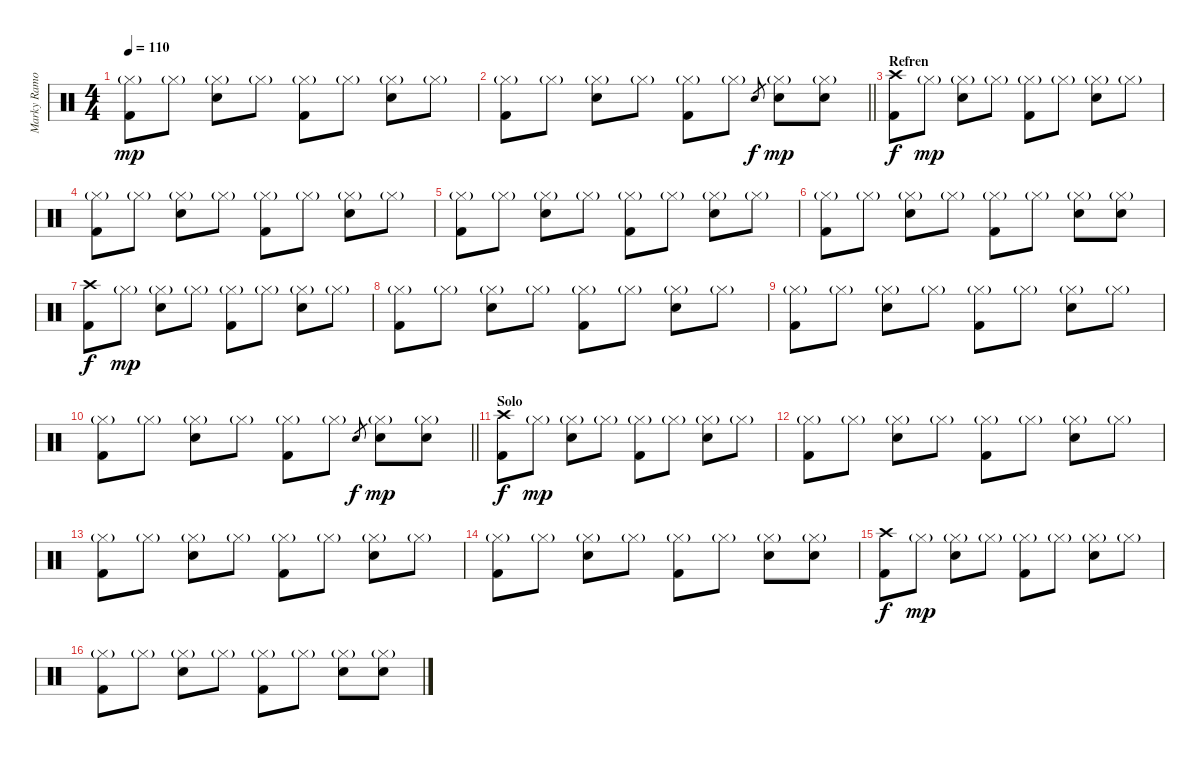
\track ("Marky Ramone-Drums" "Marky Ramo") {instrument percussion}
\staff
\articulation defaults
\ts (4 4)
\tempo 110
\clef neutral
\ks c
("Hi-Hat (closed)"{g} "Kick (hit) 2").8{dy mp} "Hi-Hat (closed)"{g}.8 ("Hi-Hat (closed)"{g} "Snare (hit) 2").8 "Hi-Hat (closed)"{g}.8 ("Hi-Hat (closed)"{g} "Kick (hit) 2").8 "Hi-Hat (closed)"{g}.8 ("Hi-Hat (closed)"{g} "Snare (hit) 2").8 "Hi-Hat (closed)"{g}.8 |
\barLineRight lightlight
("Hi-Hat (closed)"{g} "Kick (hit) 2").8 "Hi-Hat (closed)"{g}.8 ("Hi-Hat (closed)"{g} "Snare (hit) 2").8 "Hi-Hat (closed)"{g}.8 ("Hi-Hat (closed)"{g} "Kick (hit) 2").8 "Hi-Hat (closed)"{g}.8 "Snare (hit) 2".8{gr dy f} ("Hi-Hat (closed)"{g} "Snare (hit) 2").8{dy mp} ("Hi-Hat (closed)"{g} "Snare (hit) 2").8 |
\section ("" "Refren")
("Crash high (hit)" "Kick (hit) 2").8{dy f} "Hi-Hat (closed)"{g}.8{dy mp} ("Hi-Hat (closed)"{g} "Snare (hit) 2").8 "Hi-Hat (closed)"{g}.8 ("Hi-Hat (closed)"{g} "Kick (hit) 2").8 "Hi-Hat (closed)"{g}.8 ("Hi-Hat (closed)"{g} "Snare (hit) 2").8 "Hi-Hat (closed)"{g}.8 |
("Hi-Hat (closed)"{g} "Kick (hit) 2").8 "Hi-Hat (closed)"{g}.8 ("Hi-Hat (closed)"{g} "Snare (hit) 2").8 "Hi-Hat (closed)"{g}.8 ("Hi-Hat (closed)"{g} "Kick (hit) 2").8 "Hi-Hat (closed)"{g}.8 ("Hi-Hat (closed)"{g} "Snare (hit) 2").8 "Hi-Hat (closed)"{g}.8 |
("Hi-Hat (closed)"{g} "Kick (hit) 2").8 "Hi-Hat (closed)"{g}.8 ("Hi-Hat (closed)"{g} "Snare (hit) 2").8 "Hi-Hat (closed)"{g}.8 ("Hi-Hat (closed)"{g} "Kick (hit) 2").8 "Hi-Hat (closed)"{g}.8 ("Hi-Hat (closed)"{g} "Snare (hit) 2").8 "Hi-Hat (closed)"{g}.8 |
("Hi-Hat (closed)"{g} "Kick (hit) 2").8 "Hi-Hat (closed)"{g}.8 ("Hi-Hat (closed)"{g} "Snare (hit) 2").8 "Hi-Hat (closed)"{g}.8 ("Hi-Hat (closed)"{g} "Kick (hit) 2").8 "Hi-Hat (closed)"{g}.8 ("Hi-Hat (closed)"{g} "Snare (hit) 2").8 ("Hi-Hat (closed)"{g} "Snare (hit) 2").8 |
("Crash high (hit)" "Kick (hit) 2").8{dy f} "Hi-Hat (closed)"{g}.8{dy mp} ("Hi-Hat (closed)"{g} "Snare (hit) 2").8 "Hi-Hat (closed)"{g}.8 ("Hi-Hat (closed)"{g} "Kick (hit) 2").8 "Hi-Hat (closed)"{g}.8 ("Hi-Hat (closed)"{g} "Snare (hit) 2").8 "Hi-Hat (closed)"{g}.8 |
("Hi-Hat (closed)"{g} "Kick (hit) 2").8 "Hi-Hat (closed)"{g}.8 ("Hi-Hat (closed)"{g} "Snare (hit) 2").8 "Hi-Hat (closed)"{g}.8 ("Hi-Hat (closed)"{g} "Kick (hit) 2").8 "Hi-Hat (closed)"{g}.8 ("Hi-Hat (closed)"{g} "Snare (hit) 2").8 "Hi-Hat (closed)"{g}.8 |
("Hi-Hat (closed)"{g} "Kick (hit) 2").8 "Hi-Hat (closed)"{g}.8 ("Hi-Hat (closed)"{g} "Snare (hit) 2").8 "Hi-Hat (closed)"{g}.8 ("Hi-Hat (closed)"{g} "Kick (hit) 2").8 "Hi-Hat (closed)"{g}.8 ("Hi-Hat (closed)"{g} "Snare (hit) 2").8 "Hi-Hat (closed)"{g}.8 |
\barLineRight lightlight
("Hi-Hat (closed)"{g} "Kick (hit) 2").8 "Hi-Hat (closed)"{g}.8 ("Hi-Hat (closed)"{g} "Snare (hit) 2").8 "Hi-Hat (closed)"{g}.8 ("Hi-Hat (closed)"{g} "Kick (hit) 2").8 "Hi-Hat (closed)"{g}.8 "Snare (hit) 2".8{gr dy f} ("Hi-Hat (closed)"{g} "Snare (hit) 2").8{dy mp} ("Hi-Hat (closed)"{g} "Snare (hit) 2").8 |
\section ("" "Solo")
("Crash high (hit)" "Kick (hit) 2").8{dy f} "Hi-Hat (closed)"{g}.8{dy mp} ("Hi-Hat (closed)"{g} "Snare (hit) 2").8 "Hi-Hat (closed)"{g}.8 ("Hi-Hat (closed)"{g} "Kick (hit) 2").8 "Hi-Hat (closed)"{g}.8 ("Hi-Hat (closed)"{g} "Snare (hit) 2").8 "Hi-Hat (closed)"{g}.8 |
("Hi-Hat (closed)"{g} "Kick (hit) 2").8 "Hi-Hat (closed)"{g}.8 ("Hi-Hat (closed)"{g} "Snare (hit) 2").8 "Hi-Hat (closed)"{g}.8 ("Hi-Hat (closed)"{g} "Kick (hit) 2").8 "Hi-Hat (closed)"{g}.8 ("Hi-Hat (closed)"{g} "Snare (hit) 2").8 "Hi-Hat (closed)"{g}.8 |
("Hi-Hat (closed)"{g} "Kick (hit) 2").8 "Hi-Hat (closed)"{g}.8 ("Hi-Hat (closed)"{g} "Snare (hit) 2").8 "Hi-Hat (closed)"{g}.8 ("Hi-Hat (closed)"{g} "Kick (hit) 2").8 "Hi-Hat (closed)"{g}.8 ("Hi-Hat (closed)"{g} "Snare (hit) 2").8 "Hi-Hat (closed)"{g}.8 |
("Hi-Hat (closed)"{g} "Kick (hit) 2").8 "Hi-Hat (closed)"{g}.8 ("Hi-Hat (closed)"{g} "Snare (hit) 2").8 "Hi-Hat (closed)"{g}.8 ("Hi-Hat (closed)"{g} "Kick (hit) 2").8 "Hi-Hat (closed)"{g}.8 ("Hi-Hat (closed)"{g} "Snare (hit) 2").8 ("Hi-Hat (closed)"{g} "Snare (hit) 2").8 |
("Crash high (hit)" "Kick (hit) 2").8{dy f} "Hi-Hat (closed)"{g}.8{dy mp} ("Hi-Hat (closed)"{g} "Snare (hit) 2").8 "Hi-Hat (closed)"{g}.8 ("Hi-Hat (closed)"{g} "Kick (hit) 2").8 "Hi-Hat (closed)"{g}.8 ("Hi-Hat (closed)"{g} "Snare (hit) 2").8 "Hi-Hat (closed)"{g}.8 |
("Hi-Hat (closed)"{g} "Kick (hit) 2").8 "Hi-Hat (closed)"{g}.8 ("Hi-Hat (closed)"{g} "Snare (hit) 2").8 "Hi-Hat (closed)"{g}.8 ("Hi-Hat (closed)"{g} "Kick (hit) 2").8 "Hi-Hat (closed)"{g}.8 ("Hi-Hat (closed)"{g} "Snare (hit) 2").8 ("Hi-Hat (closed)"{g} "Snare (hit) 2").8
